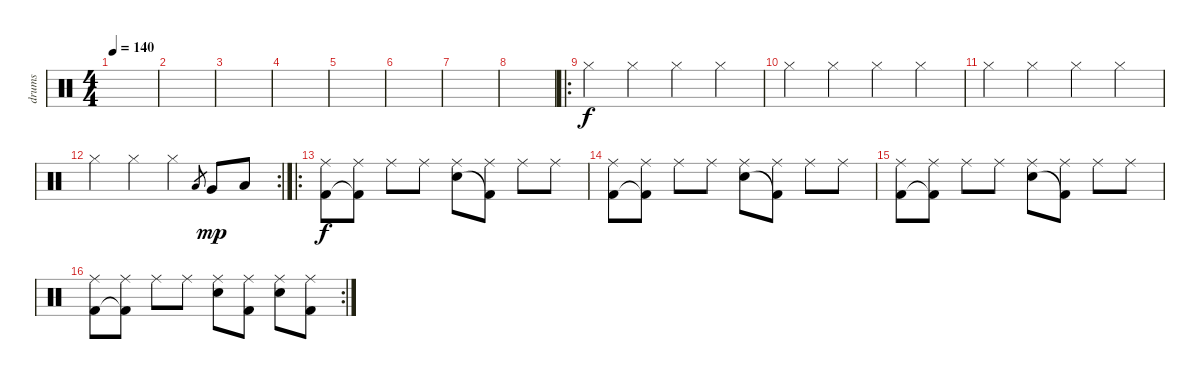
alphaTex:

\track ("drums" "drums") {instrument percussion}
\staff {score}
\articulation defaults
\ts (4 4)
\tempo 140
\clef neutral
\ks c
|
|
|
|
|
|
|
|
\ro "Hi-Hat (closed)".4 "Hi-Hat (closed)".4 "Hi-Hat (closed)".4 "Hi-Hat (closed)".4
|
"Hi-Hat (closed)".4 "Hi-Hat (closed)".4 "Hi-Hat (closed)".4 "Hi-Hat (closed)".4 |
"Hi-Hat (closed)".4 "Hi-Hat (closed)".4 "Hi-Hat (closed)".4 "Hi-Hat (closed)".4 |
\rc 2 "Hi-Hat (closed)".4 "Hi-Hat (closed)".4 "Hi-Hat (closed)".4 "Low Floor Tom (hit)".8{gr dy f} "Very Low Tom (hit)".8{dy mp} "Low Tom (hit)".8
|
\ro
("Ride (middle)" "Kick (hit) 2").8{dy f} ("Ride (middle)" "Kick (hit) 2"{t}).8 "Ride (middle)".8 "Ride (middle)".8 ("Ride (middle)" "Snare (hit) 2").8 ("Ride (middle)" "Kick (hit) 2"{t}).8 "Ride (middle)".8 "Ride (middle)".8 |
("Ride (middle)" "Kick (hit) 2").8 ("Ride (middle)" "Kick (hit) 2"{t}).8 "Ride (middle)".8 "Ride (middle)".8 ("Ride (middle)" "Snare (hit) 2").8 ("Ride (middle)" "Kick (hit) 2"{t}).8 "Ride (middle)".8 "Ride (middle)".8 |
("Ride (middle)" "Kick (hit) 2").8 ("Ride (middle)" "Kick (hit) 2"{t}).8 "Ride (middle)".8 "Ride (middle)".8 ("Ride (middle)" "Snare (hit) 2").8 ("Ride (middle)" "Kick (hit) 2"{t}).8 "Ride (middle)".8 "Ride (middle)".8 |
\rc 2
("Ride (middle)" "Kick (hit) 2").8 ("Ride (middle)" "Kick (hit) 2"{t}).8 "Ride (middle)".8 "Ride (middle)".8 ("Ride (middle)" "Snare (hit) 2").8 ("Ride (middle)" "Kick (hit) 2").8 ("Ride (middle)" "Snare (hit) 2").8 ("Ride (middle)" "Kick (hit) 2").8
